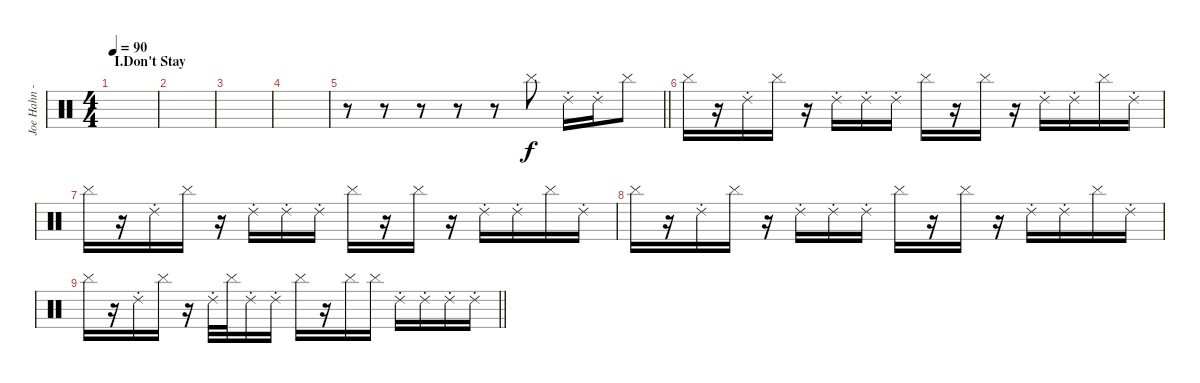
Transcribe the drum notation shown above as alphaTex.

\track ("Joe Hahn - Turnables" "Joe Hahn -") {instrument percussion}
\staff {score}
\articulation defaults
\ts (4 4)
\section ("" "I.Don't Stay")
\tempo 90
\clef neutral
\ks c
|
|
|
|
\barLineRight lightlight
r.8 r.8 r.8 r.8 r.8 "Cymbal (hit)".8 "Ride (choke) 2".16 "Ride (choke) 2".16 "Cymbal (hit)".8 |
"Cymbal (hit)".16 r.16 "Ride (choke) 2".16 "Cymbal (hit)".16 r.16 "Ride (choke) 2".16 "Ride (choke) 2".16 "Ride (choke) 2".16 "Cymbal (hit)".16 r.16 "Cymbal (hit)".16 r.16 "Ride (choke) 2".16 "Ride (choke) 2".16 "Cymbal (hit)".16 "Ride (choke) 2".16 |
"Cymbal (hit)".16 r.16 "Ride (choke) 2".16 "Cymbal (hit)".16 r.16 "Ride (choke) 2".16 "Ride (choke) 2".16 "Ride (choke) 2".16 "Cymbal (hit)".16 r.16 "Cymbal (hit)".16 r.16 "Ride (choke) 2".16 "Ride (choke) 2".16 "Cymbal (hit)".16 "Ride (choke) 2".16 |
"Cymbal (hit)".16 r.16 "Ride (choke) 2".16 "Cymbal (hit)".16 r.16 "Ride (choke) 2".16 "Ride (choke) 2".16 "Ride (choke) 2".16 "Cymbal (hit)".16 r.16 "Cymbal (hit)".16 r.16 "Ride (choke) 2".16 "Ride (choke) 2".16 "Cymbal (hit)".16 "Ride (choke) 2".16 |
\barLineRight lightlight "Cymbal (hit)".16
r.16 "Ride (choke) 2".16 "Cymbal (hit)".16 r.16 "Ride (choke) 2".32 "Cymbal (hit)".32 "Ride (choke) 2".16 "Ride (choke) 2".16 "Cymbal (hit)".16 r.16 "Cymbal (hit)".16 "Cymbal (hit)".16 "Ride (choke) 2".16 "Ride (choke) 2".16 "Ride (choke) 2".16 "Ride (choke) 2".16
